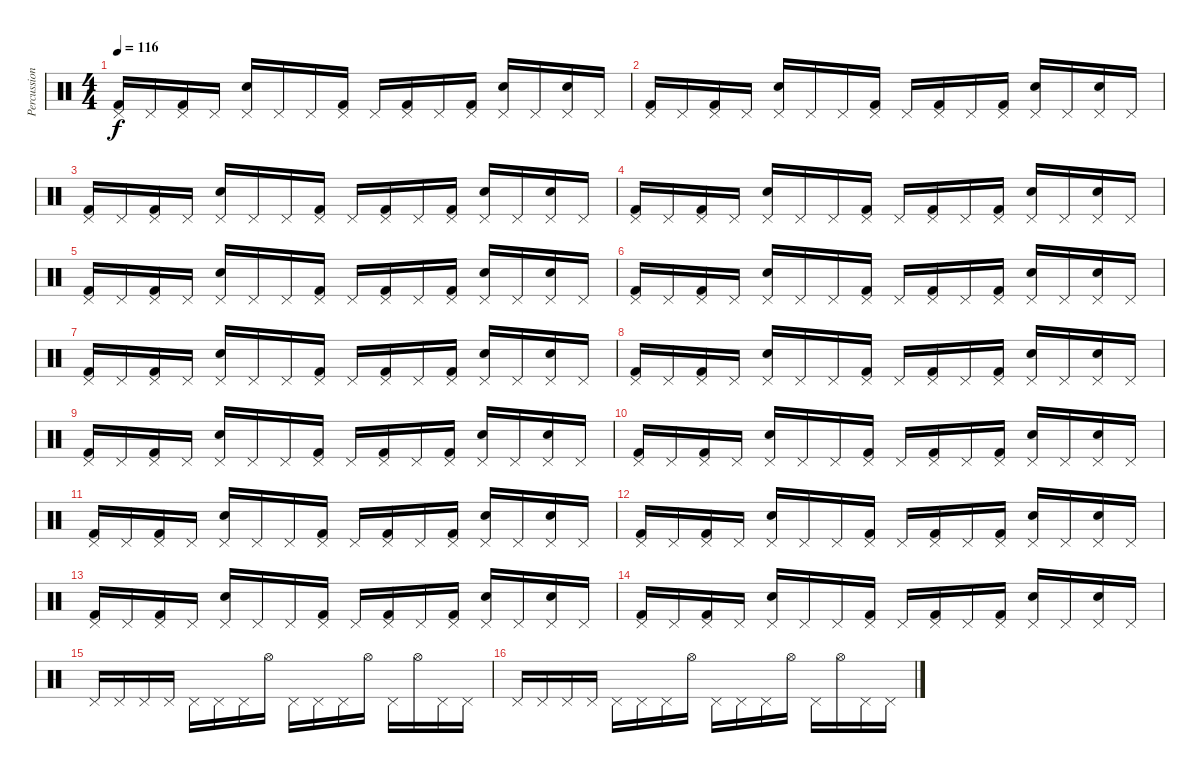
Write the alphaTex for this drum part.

\track ("Percussions" "Percussion") {instrument percussion}
\staff {score}
\articulation defaults
\ts (4 4)
\tempo 116
\clef neutral
\ks c
("Pedal Hi-Hat (hit)" "Kick (hit) 2").16{dy f} "Pedal Hi-Hat (hit)".16 ("Pedal Hi-Hat (hit)" "Kick (hit) 2").16 "Pedal Hi-Hat (hit)".16 ("Pedal Hi-Hat (hit)" "Snare (hit) 2").16 "Pedal Hi-Hat (hit)".16 "Pedal Hi-Hat (hit)".16 ("Pedal Hi-Hat (hit)" "Kick (hit) 2").16 "Pedal Hi-Hat (hit)".16 ("Pedal Hi-Hat (hit)" "Kick (hit) 2").16 "Pedal Hi-Hat (hit)".16 ("Pedal Hi-Hat (hit)" "Kick (hit) 2").16 ("Pedal Hi-Hat (hit)" "Snare (hit) 2").16 "Pedal Hi-Hat (hit)".16 ("Pedal Hi-Hat (hit)" "Snare (hit) 2").16 "Pedal Hi-Hat (hit)".16 |
("Pedal Hi-Hat (hit)" "Kick (hit) 2").16 "Pedal Hi-Hat (hit)".16 ("Pedal Hi-Hat (hit)" "Kick (hit) 2").16 "Pedal Hi-Hat (hit)".16 ("Pedal Hi-Hat (hit)" "Snare (hit) 2").16 "Pedal Hi-Hat (hit)".16 "Pedal Hi-Hat (hit)".16 ("Pedal Hi-Hat (hit)" "Kick (hit) 2").16 "Pedal Hi-Hat (hit)".16 ("Pedal Hi-Hat (hit)" "Kick (hit) 2").16 "Pedal Hi-Hat (hit)".16 ("Pedal Hi-Hat (hit)" "Kick (hit) 2").16 ("Pedal Hi-Hat (hit)" "Snare (hit) 2").16 "Pedal Hi-Hat (hit)".16 ("Pedal Hi-Hat (hit)" "Snare (hit) 2").16 "Pedal Hi-Hat (hit)".16 |
("Pedal Hi-Hat (hit)" "Kick (hit) 2").16 "Pedal Hi-Hat (hit)".16 ("Pedal Hi-Hat (hit)" "Kick (hit) 2").16 "Pedal Hi-Hat (hit)".16 ("Pedal Hi-Hat (hit)" "Snare (hit) 2").16 "Pedal Hi-Hat (hit)".16 "Pedal Hi-Hat (hit)".16 ("Pedal Hi-Hat (hit)" "Kick (hit) 2").16 "Pedal Hi-Hat (hit)".16 ("Pedal Hi-Hat (hit)" "Kick (hit) 2").16 "Pedal Hi-Hat (hit)".16 ("Pedal Hi-Hat (hit)" "Kick (hit) 2").16 ("Pedal Hi-Hat (hit)" "Snare (hit) 2").16 "Pedal Hi-Hat (hit)".16 ("Pedal Hi-Hat (hit)" "Snare (hit) 2").16 "Pedal Hi-Hat (hit)".16 |
("Pedal Hi-Hat (hit)" "Kick (hit) 2").16 "Pedal Hi-Hat (hit)".16 ("Pedal Hi-Hat (hit)" "Kick (hit) 2").16 "Pedal Hi-Hat (hit)".16 ("Pedal Hi-Hat (hit)" "Snare (hit) 2").16 "Pedal Hi-Hat (hit)".16 "Pedal Hi-Hat (hit)".16 ("Pedal Hi-Hat (hit)" "Kick (hit) 2").16 "Pedal Hi-Hat (hit)".16 ("Pedal Hi-Hat (hit)" "Kick (hit) 2").16 "Pedal Hi-Hat (hit)".16 ("Pedal Hi-Hat (hit)" "Kick (hit) 2").16 ("Pedal Hi-Hat (hit)" "Snare (hit) 2").16 "Pedal Hi-Hat (hit)".16 ("Pedal Hi-Hat (hit)" "Snare (hit) 2").16 "Pedal Hi-Hat (hit)".16 |
("Pedal Hi-Hat (hit)" "Kick (hit) 2").16 "Pedal Hi-Hat (hit)".16 ("Pedal Hi-Hat (hit)" "Kick (hit) 2").16 "Pedal Hi-Hat (hit)".16 ("Pedal Hi-Hat (hit)" "Snare (hit) 2").16 "Pedal Hi-Hat (hit)".16 "Pedal Hi-Hat (hit)".16 ("Pedal Hi-Hat (hit)" "Kick (hit) 2").16 "Pedal Hi-Hat (hit)".16 ("Pedal Hi-Hat (hit)" "Kick (hit) 2").16 "Pedal Hi-Hat (hit)".16 ("Pedal Hi-Hat (hit)" "Kick (hit) 2").16 ("Pedal Hi-Hat (hit)" "Snare (hit) 2").16 "Pedal Hi-Hat (hit)".16 ("Pedal Hi-Hat (hit)" "Snare (hit) 2").16 "Pedal Hi-Hat (hit)".16 |
("Pedal Hi-Hat (hit)" "Kick (hit) 2").16 "Pedal Hi-Hat (hit)".16 ("Pedal Hi-Hat (hit)" "Kick (hit) 2").16 "Pedal Hi-Hat (hit)".16 ("Pedal Hi-Hat (hit)" "Snare (hit) 2").16 "Pedal Hi-Hat (hit)".16 "Pedal Hi-Hat (hit)".16 ("Pedal Hi-Hat (hit)" "Kick (hit) 2").16 "Pedal Hi-Hat (hit)".16 ("Pedal Hi-Hat (hit)" "Kick (hit) 2").16 "Pedal Hi-Hat (hit)".16 ("Pedal Hi-Hat (hit)" "Kick (hit) 2").16 ("Pedal Hi-Hat (hit)" "Snare (hit) 2").16 "Pedal Hi-Hat (hit)".16 ("Pedal Hi-Hat (hit)" "Snare (hit) 2").16 "Pedal Hi-Hat (hit)".16 |
("Pedal Hi-Hat (hit)" "Kick (hit) 2").16 "Pedal Hi-Hat (hit)".16 ("Pedal Hi-Hat (hit)" "Kick (hit) 2").16 "Pedal Hi-Hat (hit)".16 ("Pedal Hi-Hat (hit)" "Snare (hit) 2").16 "Pedal Hi-Hat (hit)".16 "Pedal Hi-Hat (hit)".16 ("Pedal Hi-Hat (hit)" "Kick (hit) 2").16 "Pedal Hi-Hat (hit)".16 ("Pedal Hi-Hat (hit)" "Kick (hit) 2").16 "Pedal Hi-Hat (hit)".16 ("Pedal Hi-Hat (hit)" "Kick (hit) 2").16 ("Pedal Hi-Hat (hit)" "Snare (hit) 2").16 "Pedal Hi-Hat (hit)".16 ("Pedal Hi-Hat (hit)" "Snare (hit) 2").16 "Pedal Hi-Hat (hit)".16 |
("Pedal Hi-Hat (hit)" "Kick (hit) 2").16 "Pedal Hi-Hat (hit)".16 ("Pedal Hi-Hat (hit)" "Kick (hit) 2").16 "Pedal Hi-Hat (hit)".16 ("Pedal Hi-Hat (hit)" "Snare (hit) 2").16 "Pedal Hi-Hat (hit)".16 "Pedal Hi-Hat (hit)".16 ("Pedal Hi-Hat (hit)" "Kick (hit) 2").16 "Pedal Hi-Hat (hit)".16 ("Pedal Hi-Hat (hit)" "Kick (hit) 2").16 "Pedal Hi-Hat (hit)".16 ("Pedal Hi-Hat (hit)" "Kick (hit) 2").16 ("Pedal Hi-Hat (hit)" "Snare (hit) 2").16 "Pedal Hi-Hat (hit)".16 ("Pedal Hi-Hat (hit)" "Snare (hit) 2").16 "Pedal Hi-Hat (hit)".16 |
("Pedal Hi-Hat (hit)" "Kick (hit) 2").16 "Pedal Hi-Hat (hit)".16 ("Pedal Hi-Hat (hit)" "Kick (hit) 2").16 "Pedal Hi-Hat (hit)".16 ("Pedal Hi-Hat (hit)" "Snare (hit) 2").16 "Pedal Hi-Hat (hit)".16 "Pedal Hi-Hat (hit)".16 ("Pedal Hi-Hat (hit)" "Kick (hit) 2").16 "Pedal Hi-Hat (hit)".16 ("Pedal Hi-Hat (hit)" "Kick (hit) 2").16 "Pedal Hi-Hat (hit)".16 ("Pedal Hi-Hat (hit)" "Kick (hit) 2").16 ("Pedal Hi-Hat (hit)" "Snare (hit) 2").16 "Pedal Hi-Hat (hit)".16 ("Pedal Hi-Hat (hit)" "Snare (hit) 2").16 "Pedal Hi-Hat (hit)".16 |
("Pedal Hi-Hat (hit)" "Kick (hit) 2").16 "Pedal Hi-Hat (hit)".16 ("Pedal Hi-Hat (hit)" "Kick (hit) 2").16 "Pedal Hi-Hat (hit)".16 ("Pedal Hi-Hat (hit)" "Snare (hit) 2").16 "Pedal Hi-Hat (hit)".16 "Pedal Hi-Hat (hit)".16 ("Pedal Hi-Hat (hit)" "Kick (hit) 2").16 "Pedal Hi-Hat (hit)".16 ("Pedal Hi-Hat (hit)" "Kick (hit) 2").16 "Pedal Hi-Hat (hit)".16 ("Pedal Hi-Hat (hit)" "Kick (hit) 2").16 ("Pedal Hi-Hat (hit)" "Snare (hit) 2").16 "Pedal Hi-Hat (hit)".16 ("Pedal Hi-Hat (hit)" "Snare (hit) 2").16 "Pedal Hi-Hat (hit)".16 |
("Pedal Hi-Hat (hit)" "Kick (hit) 2").16 "Pedal Hi-Hat (hit)".16 ("Pedal Hi-Hat (hit)" "Kick (hit) 2").16 "Pedal Hi-Hat (hit)".16 ("Pedal Hi-Hat (hit)" "Snare (hit) 2").16 "Pedal Hi-Hat (hit)".16 "Pedal Hi-Hat (hit)".16 ("Pedal Hi-Hat (hit)" "Kick (hit) 2").16 "Pedal Hi-Hat (hit)".16 ("Pedal Hi-Hat (hit)" "Kick (hit) 2").16 "Pedal Hi-Hat (hit)".16 ("Pedal Hi-Hat (hit)" "Kick (hit) 2").16 ("Pedal Hi-Hat (hit)" "Snare (hit) 2").16 "Pedal Hi-Hat (hit)".16 ("Pedal Hi-Hat (hit)" "Snare (hit) 2").16 "Pedal Hi-Hat (hit)".16 |
("Pedal Hi-Hat (hit)" "Kick (hit) 2").16 "Pedal Hi-Hat (hit)".16 ("Pedal Hi-Hat (hit)" "Kick (hit) 2").16 "Pedal Hi-Hat (hit)".16 ("Pedal Hi-Hat (hit)" "Snare (hit) 2").16 "Pedal Hi-Hat (hit)".16 "Pedal Hi-Hat (hit)".16 ("Pedal Hi-Hat (hit)" "Kick (hit) 2").16 "Pedal Hi-Hat (hit)".16 ("Pedal Hi-Hat (hit)" "Kick (hit) 2").16 "Pedal Hi-Hat (hit)".16 ("Pedal Hi-Hat (hit)" "Kick (hit) 2").16 ("Pedal Hi-Hat (hit)" "Snare (hit) 2").16 "Pedal Hi-Hat (hit)".16 ("Pedal Hi-Hat (hit)" "Snare (hit) 2").16 "Pedal Hi-Hat (hit)".16 |
("Pedal Hi-Hat (hit)" "Kick (hit) 2").16 "Pedal Hi-Hat (hit)".16 ("Pedal Hi-Hat (hit)" "Kick (hit) 2").16 "Pedal Hi-Hat (hit)".16 ("Pedal Hi-Hat (hit)" "Snare (hit) 2").16 "Pedal Hi-Hat (hit)".16 "Pedal Hi-Hat (hit)".16 ("Pedal Hi-Hat (hit)" "Kick (hit) 2").16 "Pedal Hi-Hat (hit)".16 ("Pedal Hi-Hat (hit)" "Kick (hit) 2").16 "Pedal Hi-Hat (hit)".16 ("Pedal Hi-Hat (hit)" "Kick (hit) 2").16 ("Pedal Hi-Hat (hit)" "Snare (hit) 2").16 "Pedal Hi-Hat (hit)".16 ("Pedal Hi-Hat (hit)" "Snare (hit) 2").16 "Pedal Hi-Hat (hit)".16 |
("Pedal Hi-Hat (hit)" "Kick (hit) 2").16 "Pedal Hi-Hat (hit)".16 ("Pedal Hi-Hat (hit)" "Kick (hit) 2").16 "Pedal Hi-Hat (hit)".16 ("Pedal Hi-Hat (hit)" "Snare (hit) 2").16 "Pedal Hi-Hat (hit)".16 "Pedal Hi-Hat (hit)".16 ("Pedal Hi-Hat (hit)" "Kick (hit) 2").16 "Pedal Hi-Hat (hit)".16 ("Pedal Hi-Hat (hit)" "Kick (hit) 2").16 "Pedal Hi-Hat (hit)".16 ("Pedal Hi-Hat (hit)" "Kick (hit) 2").16 ("Pedal Hi-Hat (hit)" "Snare (hit) 2").16 "Pedal Hi-Hat (hit)".16 ("Pedal Hi-Hat (hit)" "Snare (hit) 2").16 "Pedal Hi-Hat (hit)".16 |
"Pedal Hi-Hat (hit)".16 "Pedal Hi-Hat (hit)".16 "Pedal Hi-Hat (hit)".16 "Pedal Hi-Hat (hit)".16 "Pedal Hi-Hat (hit)".16 "Pedal Hi-Hat (hit)".16 "Pedal Hi-Hat (hit)".16 "Hi-Hat (open)".16 "Pedal Hi-Hat (hit)".16 "Pedal Hi-Hat (hit)".16 "Pedal Hi-Hat (hit)".16 "Hi-Hat (open)".16 "Pedal Hi-Hat (hit)".16 "Hi-Hat (open)".16 "Pedal Hi-Hat (hit)".16 "Pedal Hi-Hat (hit)".16 |
"Pedal Hi-Hat (hit)".16 "Pedal Hi-Hat (hit)".16 "Pedal Hi-Hat (hit)".16 "Pedal Hi-Hat (hit)".16 "Pedal Hi-Hat (hit)".16 "Pedal Hi-Hat (hit)".16 "Pedal Hi-Hat (hit)".16 "Hi-Hat (open)".16 "Pedal Hi-Hat (hit)".16 "Pedal Hi-Hat (hit)".16 "Pedal Hi-Hat (hit)".16 "Hi-Hat (open)".16 "Pedal Hi-Hat (hit)".16 "Hi-Hat (open)".16 "Pedal Hi-Hat (hit)".16 "Pedal Hi-Hat (hit)".16
